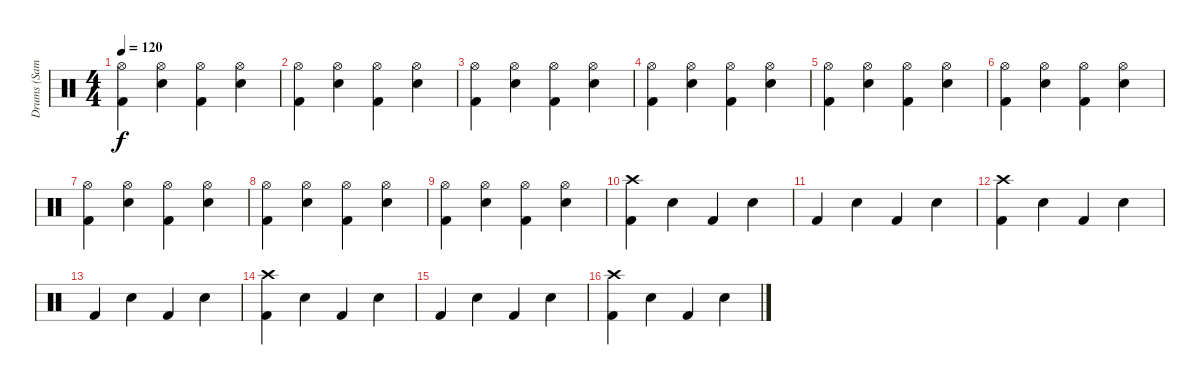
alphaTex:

\track ("Drums (Sami Karppinen)" "Drums (Sam") {instrument percussion}
\staff {score}
\articulation defaults
\ts (4 4)
\tempo 120
\clef neutral
\ks c
("Hi-Hat (open)" "Kick (hit) 2").4{dy f} ("Hi-Hat (open)" "Electric Snare (hit)").4 ("Hi-Hat (open)" "Kick (hit) 2").4 ("Hi-Hat (open)" "Electric Snare (hit)").4 |
("Hi-Hat (open)" "Kick (hit) 2").4 ("Hi-Hat (open)" "Electric Snare (hit)").4 ("Hi-Hat (open)" "Kick (hit) 2").4 ("Hi-Hat (open)" "Electric Snare (hit)").4 |
("Hi-Hat (open)" "Kick (hit) 2").4 ("Hi-Hat (open)" "Electric Snare (hit)").4 ("Hi-Hat (open)" "Kick (hit) 2").4 ("Hi-Hat (open)" "Electric Snare (hit)").4 |
("Hi-Hat (open)" "Kick (hit) 2").4 ("Hi-Hat (open)" "Electric Snare (hit)").4 ("Hi-Hat (open)" "Kick (hit) 2").4 ("Hi-Hat (open)" "Electric Snare (hit)").4 |
("Hi-Hat (open)" "Kick (hit) 2").4 ("Hi-Hat (open)" "Electric Snare (hit)").4 ("Hi-Hat (open)" "Kick (hit) 2").4 ("Hi-Hat (open)" "Electric Snare (hit)").4 |
("Hi-Hat (open)" "Kick (hit) 2").4 ("Hi-Hat (open)" "Electric Snare (hit)").4 ("Hi-Hat (open)" "Kick (hit) 2").4 ("Hi-Hat (open)" "Electric Snare (hit)").4 |
("Hi-Hat (open)" "Kick (hit) 2").4 ("Hi-Hat (open)" "Electric Snare (hit)").4 ("Hi-Hat (open)" "Kick (hit) 2").4 ("Hi-Hat (open)" "Electric Snare (hit)").4 |
("Hi-Hat (open)" "Kick (hit) 2").4 ("Hi-Hat (open)" "Electric Snare (hit)").4 ("Hi-Hat (open)" "Kick (hit) 2").4 ("Hi-Hat (open)" "Electric Snare (hit)").4 |
("Hi-Hat (open)" "Kick (hit) 2").4 ("Hi-Hat (open)" "Electric Snare (hit)").4 ("Hi-Hat (open)" "Kick (hit) 2").4 ("Hi-Hat (open)" "Electric Snare (hit)").4 |
("Crash high (hit)" "Kick (hit) 2").4 "Electric Snare (hit)".4 "Kick (hit) 2".4 "Electric Snare (hit)".4 |
"Kick (hit) 2".4 "Electric Snare (hit)".4 "Kick (hit) 2".4 "Electric Snare (hit)".4 |
("Crash high (hit)" "Kick (hit) 2").4 "Electric Snare (hit)".4 "Kick (hit) 2".4 "Electric Snare (hit)".4 |
"Kick (hit) 2".4 "Electric Snare (hit)".4 "Kick (hit) 2".4 "Electric Snare (hit)".4 |
("Crash high (hit)" "Kick (hit) 2").4 "Electric Snare (hit)".4 "Kick (hit) 2".4 "Electric Snare (hit)".4 |
"Kick (hit) 2".4 "Electric Snare (hit)".4 "Kick (hit) 2".4 "Electric Snare (hit)".4 |
("Crash high (hit)" "Kick (hit) 2").4 "Electric Snare (hit)".4 "Kick (hit) 2".4 "Electric Snare (hit)".4
